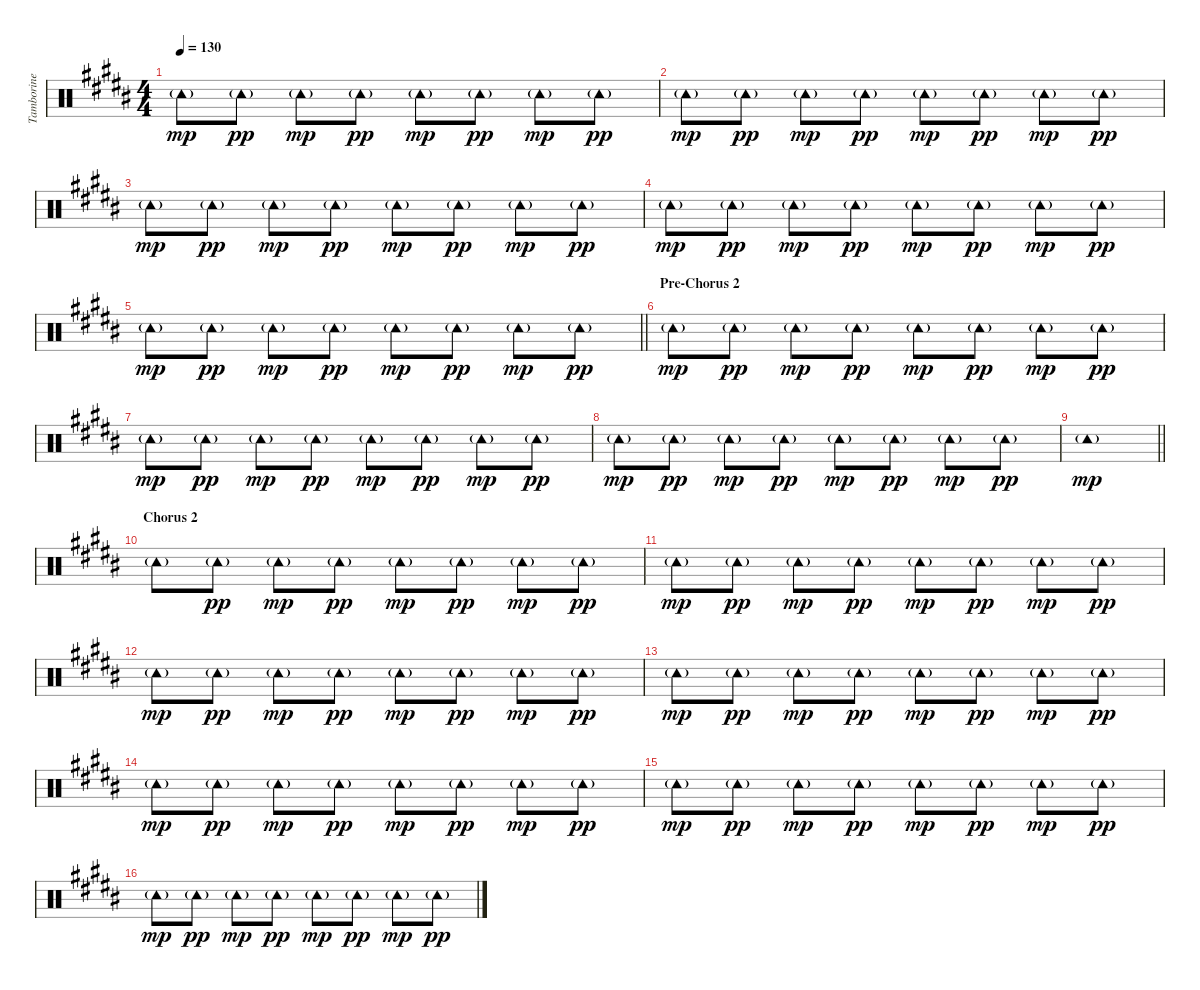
\track ("Tamborine" "Tamborine") {instrument percussion}
\staff {score}
\articulation defaults
\ts (4 4)
\tempo 130
\clef neutral
\ks b "Tambourine (hit)"{g}.8{dy mp} "Tambourine (hit)"{g}.8{dy pp} "Tambourine (hit)"{g}.8{dy mp} "Tambourine (hit)"{g}.8{dy pp} "Tambourine (hit)"{g}.8{dy mp} "Tambourine (hit)"{g}.8{dy pp} "Tambourine (hit)"{g}.8{dy mp} "Tambourine (hit)"{g}.8{dy pp}
|
"Tambourine (hit)"{g}.8{dy mp} "Tambourine (hit)"{g}.8{dy pp} "Tambourine (hit)"{g}.8{dy mp} "Tambourine (hit)"{g}.8{dy pp} "Tambourine (hit)"{g}.8{dy mp} "Tambourine (hit)"{g}.8{dy pp} "Tambourine (hit)"{g}.8{dy mp} "Tambourine (hit)"{g}.8{dy pp} |
"Tambourine (hit)"{g}.8{dy mp} "Tambourine (hit)"{g}.8{dy pp} "Tambourine (hit)"{g}.8{dy mp} "Tambourine (hit)"{g}.8{dy pp} "Tambourine (hit)"{g}.8{dy mp} "Tambourine (hit)"{g}.8{dy pp} "Tambourine (hit)"{g}.8{dy mp} "Tambourine (hit)"{g}.8{dy pp} |
"Tambourine (hit)"{g}.8{dy mp} "Tambourine (hit)"{g}.8{dy pp} "Tambourine (hit)"{g}.8{dy mp} "Tambourine (hit)"{g}.8{dy pp} "Tambourine (hit)"{g}.8{dy mp} "Tambourine (hit)"{g}.8{dy pp} "Tambourine (hit)"{g}.8{dy mp} "Tambourine (hit)"{g}.8{dy pp} |
\barLineRight lightlight "Tambourine (hit)"{g}.8{dy mp} "Tambourine (hit)"{g}.8{dy pp} "Tambourine (hit)"{g}.8{dy mp} "Tambourine (hit)"{g}.8{dy pp} "Tambourine (hit)"{g}.8{dy mp} "Tambourine (hit)"{g}.8{dy pp} "Tambourine (hit)"{g}.8{dy mp} "Tambourine (hit)"{g}.8{dy pp}
|
\section ("" "Pre-Chorus 2")
"Tambourine (hit)"{g}.8{dy mp} "Tambourine (hit)"{g}.8{dy pp} "Tambourine (hit)"{g}.8{dy mp} "Tambourine (hit)"{g}.8{dy pp} "Tambourine (hit)"{g}.8{dy mp} "Tambourine (hit)"{g}.8{dy pp} "Tambourine (hit)"{g}.8{dy mp} "Tambourine (hit)"{g}.8{dy pp} |
"Tambourine (hit)"{g}.8{dy mp} "Tambourine (hit)"{g}.8{dy pp} "Tambourine (hit)"{g}.8{dy mp} "Tambourine (hit)"{g}.8{dy pp} "Tambourine (hit)"{g}.8{dy mp} "Tambourine (hit)"{g}.8{dy pp} "Tambourine (hit)"{g}.8{dy mp} "Tambourine (hit)"{g}.8{dy pp} |
"Tambourine (hit)"{g}.8{dy mp} "Tambourine (hit)"{g}.8{dy pp} "Tambourine (hit)"{g}.8{dy mp} "Tambourine (hit)"{g}.8{dy pp} "Tambourine (hit)"{g}.8{dy mp} "Tambourine (hit)"{g}.8{dy pp} "Tambourine (hit)"{g}.8{dy mp} "Tambourine (hit)"{g}.8{dy pp} |
\barLineRight lightlight "Tambourine (hit)"{g}.1{dy mp}
|
\section ("" "Chorus 2")
"Tambourine (hit)"{g}.8 "Tambourine (hit)"{g}.8{dy pp} "Tambourine (hit)"{g}.8{dy mp} "Tambourine (hit)"{g}.8{dy pp} "Tambourine (hit)"{g}.8{dy mp} "Tambourine (hit)"{g}.8{dy pp} "Tambourine (hit)"{g}.8{dy mp} "Tambourine (hit)"{g}.8{dy pp} |
"Tambourine (hit)"{g}.8{dy mp} "Tambourine (hit)"{g}.8{dy pp} "Tambourine (hit)"{g}.8{dy mp} "Tambourine (hit)"{g}.8{dy pp} "Tambourine (hit)"{g}.8{dy mp} "Tambourine (hit)"{g}.8{dy pp} "Tambourine (hit)"{g}.8{dy mp} "Tambourine (hit)"{g}.8{dy pp} |
"Tambourine (hit)"{g}.8{dy mp} "Tambourine (hit)"{g}.8{dy pp} "Tambourine (hit)"{g}.8{dy mp} "Tambourine (hit)"{g}.8{dy pp} "Tambourine (hit)"{g}.8{dy mp} "Tambourine (hit)"{g}.8{dy pp} "Tambourine (hit)"{g}.8{dy mp} "Tambourine (hit)"{g}.8{dy pp} |
"Tambourine (hit)"{g}.8{dy mp} "Tambourine (hit)"{g}.8{dy pp} "Tambourine (hit)"{g}.8{dy mp} "Tambourine (hit)"{g}.8{dy pp} "Tambourine (hit)"{g}.8{dy mp} "Tambourine (hit)"{g}.8{dy pp} "Tambourine (hit)"{g}.8{dy mp} "Tambourine (hit)"{g}.8{dy pp} |
"Tambourine (hit)"{g}.8{dy mp} "Tambourine (hit)"{g}.8{dy pp} "Tambourine (hit)"{g}.8{dy mp} "Tambourine (hit)"{g}.8{dy pp} "Tambourine (hit)"{g}.8{dy mp} "Tambourine (hit)"{g}.8{dy pp} "Tambourine (hit)"{g}.8{dy mp} "Tambourine (hit)"{g}.8{dy pp} |
"Tambourine (hit)"{g}.8{dy mp} "Tambourine (hit)"{g}.8{dy pp} "Tambourine (hit)"{g}.8{dy mp} "Tambourine (hit)"{g}.8{dy pp} "Tambourine (hit)"{g}.8{dy mp} "Tambourine (hit)"{g}.8{dy pp} "Tambourine (hit)"{g}.8{dy mp} "Tambourine (hit)"{g}.8{dy pp} |
"Tambourine (hit)"{g}.8{dy mp} "Tambourine (hit)"{g}.8{dy pp} "Tambourine (hit)"{g}.8{dy mp} "Tambourine (hit)"{g}.8{dy pp} "Tambourine (hit)"{g}.8{dy mp} "Tambourine (hit)"{g}.8{dy pp} "Tambourine (hit)"{g}.8{dy mp} "Tambourine (hit)"{g}.8{dy pp}
